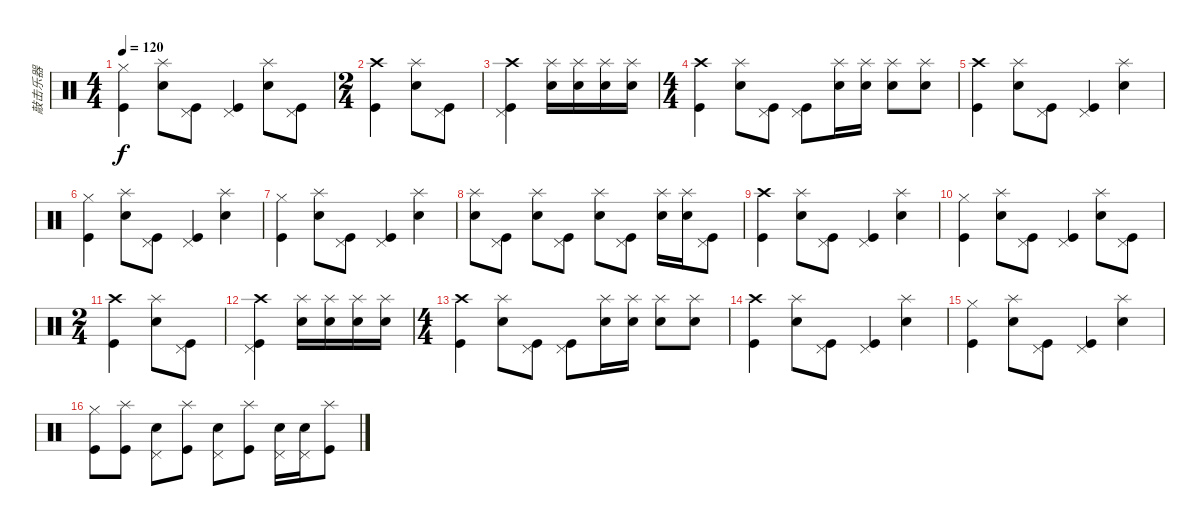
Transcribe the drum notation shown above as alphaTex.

\track ("敲击乐器" "敲击乐器") {instrument percussion}
\staff {score}
\articulation defaults
\ts (4 4)
\tempo 120
\clef neutral
\ks c
("Hi-Hat (closed)" "Kick (hit)").4{dy f} ("Splash (hit)" "Snare (hit) 2").8 ("Pedal Hi-Hat (hit)" "Kick (hit)").8 ("Pedal Hi-Hat (hit)" "Kick (hit)").4 ("Splash (hit)" "Snare (hit) 2").8 ("Pedal Hi-Hat (hit)" "Kick (hit)").8 |
\ts (2 4)
("Crash high (hit)" "Kick (hit)").4 ("Splash (hit)" "Snare (hit) 2").8 ("Pedal Hi-Hat (hit)" "Kick (hit)").8 |
("Crash high (hit)" "Pedal Hi-Hat (hit)" "Kick (hit)").4 ("Splash (hit)" "Snare (hit) 2").16 ("Splash (hit)" "Snare (hit) 2").16 ("Splash (hit)" "Snare (hit) 2").16 ("Splash (hit)" "Snare (hit) 2").16 |
\ts (4 4)
("Crash high (hit)" "Kick (hit)").4 ("Splash (hit)" "Snare (hit) 2").8 ("Pedal Hi-Hat (hit)" "Kick (hit)").8 ("Pedal Hi-Hat (hit)" "Kick (hit)").8 ("Splash (hit)" "Snare (hit) 2").16 ("Splash (hit)" "Snare (hit) 2").16 ("Splash (hit)" "Snare (hit) 2").8 ("Splash (hit)" "Snare (hit) 2").8 |
("Crash high (hit)" "Kick (hit)").4 ("Splash (hit)" "Snare (hit) 2").8 ("Pedal Hi-Hat (hit)" "Kick (hit)").8 ("Pedal Hi-Hat (hit)" "Kick (hit)").4 ("Splash (hit)" "Snare (hit) 2").4 |
("Hi-Hat (closed)" "Kick (hit)").4 ("Splash (hit)" "Snare (hit) 2").8 ("Pedal Hi-Hat (hit)" "Kick (hit)").8 ("Pedal Hi-Hat (hit)" "Kick (hit)").4 ("Splash (hit)" "Snare (hit) 2").4 |
("Hi-Hat (closed)" "Kick (hit)").4 ("Splash (hit)" "Snare (hit) 2").8 ("Pedal Hi-Hat (hit)" "Kick (hit)").8 ("Pedal Hi-Hat (hit)" "Kick (hit)").4 ("Splash (hit)" "Snare (hit) 2").4 |
("Splash (hit)" "Snare (hit) 2").8 ("Pedal Hi-Hat (hit)" "Kick (hit)").8 ("Splash (hit)" "Snare (hit) 2").8 ("Pedal Hi-Hat (hit)" "Kick (hit)").8 ("Splash (hit)" "Snare (hit) 2").8 ("Pedal Hi-Hat (hit)" "Kick (hit)").8 ("Splash (hit)" "Snare (hit) 2").16 ("Splash (hit)" "Snare (hit) 2").16 ("Pedal Hi-Hat (hit)" "Kick (hit)").8 |
("Crash high (hit)" "Kick (hit)").4 ("Splash (hit)" "Snare (hit) 2").8 ("Pedal Hi-Hat (hit)" "Kick (hit)").8 ("Pedal Hi-Hat (hit)" "Kick (hit)").4 ("Splash (hit)" "Snare (hit) 2").4 |
("Hi-Hat (closed)" "Kick (hit)").4 ("Splash (hit)" "Snare (hit) 2").8 ("Pedal Hi-Hat (hit)" "Kick (hit)").8 ("Pedal Hi-Hat (hit)" "Kick (hit)").4 ("Splash (hit)" "Snare (hit) 2").8 ("Pedal Hi-Hat (hit)" "Kick (hit)").8 |
\ts (2 4)
("Crash high (hit)" "Kick (hit)").4 ("Splash (hit)" "Snare (hit) 2").8 ("Pedal Hi-Hat (hit)" "Kick (hit)").8 |
("Crash high (hit)" "Pedal Hi-Hat (hit)" "Kick (hit)").4 ("Splash (hit)" "Snare (hit) 2").16 ("Splash (hit)" "Snare (hit) 2").16 ("Splash (hit)" "Snare (hit) 2").16 ("Splash (hit)" "Snare (hit) 2").16 |
\ts (4 4)
("Crash high (hit)" "Kick (hit)").4 ("Splash (hit)" "Snare (hit) 2").8 ("Pedal Hi-Hat (hit)" "Kick (hit)").8 ("Pedal Hi-Hat (hit)" "Kick (hit)").8 ("Splash (hit)" "Snare (hit) 2").16 ("Splash (hit)" "Snare (hit) 2").16 ("Splash (hit)" "Snare (hit) 2").8 ("Splash (hit)" "Snare (hit) 2").8 |
("Crash high (hit)" "Kick (hit)").4 ("Splash (hit)" "Snare (hit) 2").8 ("Pedal Hi-Hat (hit)" "Kick (hit)").8 ("Pedal Hi-Hat (hit)" "Kick (hit)").4 ("Splash (hit)" "Snare (hit) 2").4 |
("Hi-Hat (closed)" "Kick (hit)").4 ("Splash (hit)" "Snare (hit) 2").8 ("Pedal Hi-Hat (hit)" "Kick (hit)").8 ("Pedal Hi-Hat (hit)" "Kick (hit)").4 ("Splash (hit)" "Snare (hit) 2").4 |
("Hi-Hat (closed)" "Kick (hit)").8 ("Splash (hit)" "Kick (hit)").8 ("Pedal Hi-Hat (hit)" "Snare (hit) 2").8 ("Splash (hit)" "Kick (hit)").8 ("Pedal Hi-Hat (hit)" "Snare (hit) 2").8 ("Splash (hit)" "Kick (hit)").8 ("Pedal Hi-Hat (hit)" "Snare (hit) 2").16 ("Pedal Hi-Hat (hit)" "Snare (hit) 2").16 ("Splash (hit)" "Kick (hit)").8
